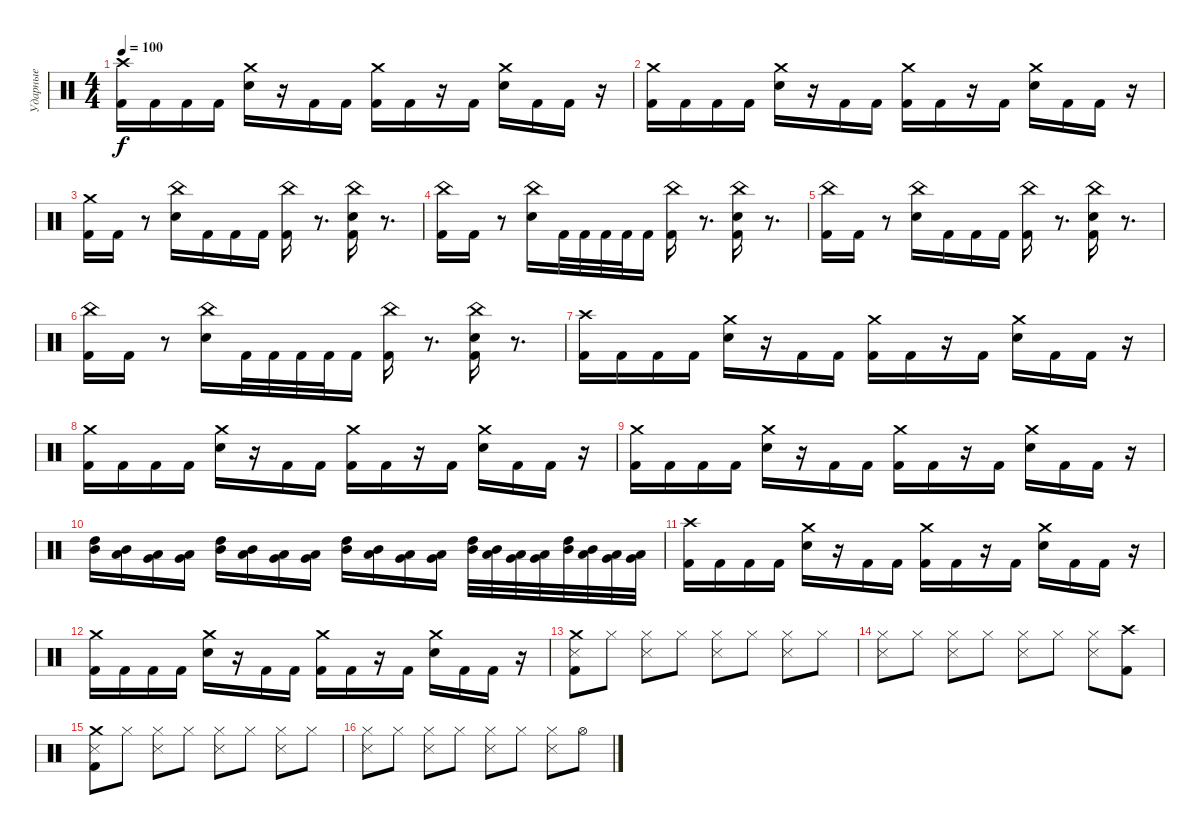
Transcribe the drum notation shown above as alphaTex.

\track ("Ударные" "Ударные") {instrument percussion}
\staff {score}
\articulation defaults
\ts (4 4)
\tempo 100
\clef neutral
\ks c
("Crash high (hit)" "Kick (hit) 2").16{dy f} "Kick (hit) 2".16 "Kick (hit) 2".16 "Kick (hit) 2".16 ("Crash medium (hit)" "Electric Snare (hit)").16 r.16 "Kick (hit) 2".16 "Kick (hit) 2".16 ("Crash medium (hit)" "Kick (hit) 2").16 "Kick (hit) 2".16 r.16 "Kick (hit) 2".16 ("Crash medium (hit)" "Electric Snare (hit)").16 "Kick (hit) 2".16 "Kick (hit) 2".16 r.16 |
("Crash medium (hit)" "Kick (hit) 2").16 "Kick (hit) 2".16 "Kick (hit) 2".16 "Kick (hit) 2".16 ("Crash medium (hit)" "Electric Snare (hit)").16 r.16 "Kick (hit) 2".16 "Kick (hit) 2".16 ("Crash medium (hit)" "Kick (hit) 2").16 "Kick (hit) 2".16 r.16 "Kick (hit) 2".16 ("Crash medium (hit)" "Electric Snare (hit)").16 "Kick (hit) 2".16 "Kick (hit) 2".16 r.16 |
("Crash medium (hit)" "Kick (hit) 2").16 "Kick (hit) 2".16 r.8 ("China (hit)" "Electric Snare (hit)").16 "Kick (hit) 2".16 "Kick (hit) 2".16 "Kick (hit) 2".16 ("China (hit)" "Kick (hit) 2").16 r.8{d} ("China (hit)" "Electric Snare (hit)" "Kick (hit) 2").16 r.8{d} |
("China (hit)" "Kick (hit) 2").16 "Kick (hit) 2".16 r.8 ("China (hit)" "Electric Snare (hit)").16 "Kick (hit) 2".32 "Kick (hit) 2".32 "Kick (hit) 2".32 "Kick (hit) 2".32 "Kick (hit) 2".16 ("China (hit)" "Kick (hit) 2").16 r.8{d} ("China (hit)" "Electric Snare (hit)" "Kick (hit) 2").16 r.8{d} |
("China (hit)" "Kick (hit) 2").16 "Kick (hit) 2".16 r.8 ("China (hit)" "Electric Snare (hit)").16 "Kick (hit) 2".16 "Kick (hit) 2".16 "Kick (hit) 2".16 ("China (hit)" "Kick (hit) 2").16 r.8{d} ("China (hit)" "Electric Snare (hit)" "Kick (hit) 2").16 r.8{d} |
("China (hit)" "Kick (hit) 2").16 "Kick (hit) 2".16 r.8 ("China (hit)" "Electric Snare (hit)").16 "Kick (hit) 2".32 "Kick (hit) 2".32 "Kick (hit) 2".32 "Kick (hit) 2".32 "Kick (hit) 2".16 ("China (hit)" "Kick (hit) 2").16 r.8{d} ("China (hit)" "Electric Snare (hit)" "Kick (hit) 2").16 r.8{d} |
("Crash high (hit)" "Kick (hit) 2").16 "Kick (hit) 2".16 "Kick (hit) 2".16 "Kick (hit) 2".16 ("Crash medium (hit)" "Electric Snare (hit)").16 r.16 "Kick (hit) 2".16 "Kick (hit) 2".16 ("Crash medium (hit)" "Kick (hit) 2").16 "Kick (hit) 2".16 r.16 "Kick (hit) 2".16 ("Crash medium (hit)" "Electric Snare (hit)").16 "Kick (hit) 2".16 "Kick (hit) 2".16 r.16 |
("Crash medium (hit)" "Kick (hit) 2").16 "Kick (hit) 2".16 "Kick (hit) 2".16 "Kick (hit) 2".16 ("Crash medium (hit)" "Electric Snare (hit)").16 r.16 "Kick (hit) 2".16 "Kick (hit) 2".16 ("Crash medium (hit)" "Kick (hit) 2").16 "Kick (hit) 2".16 r.16 "Kick (hit) 2".16 ("Crash medium (hit)" "Electric Snare (hit)").16 "Kick (hit) 2".16 "Kick (hit) 2".16 r.16 |
("Crash medium (hit)" "Kick (hit) 2").16 "Kick (hit) 2".16 "Kick (hit) 2".16 "Kick (hit) 2".16 ("Crash medium (hit)" "Electric Snare (hit)").16 r.16 "Kick (hit) 2".16 "Kick (hit) 2".16 ("Crash medium (hit)" "Kick (hit) 2").16 "Kick (hit) 2".16 r.16 "Kick (hit) 2".16 ("Crash medium (hit)" "Electric Snare (hit)").16 "Kick (hit) 2".16 "Kick (hit) 2".16 r.16 |
("High Tom (hit)" "Mid Tom (hit)").16 ("Mid Tom (hit)" "Low Tom (hit)").16 ("Low Tom (hit)" "Very Low Tom (hit)").16 ("Very Low Tom (hit)" "Low Floor Tom (hit)").16 ("High Tom (hit)" "Mid Tom (hit)").16 ("Mid Tom (hit)" "Low Tom (hit)").16 ("Low Tom (hit)" "Very Low Tom (hit)").16 ("Very Low Tom (hit)" "Low Floor Tom (hit)").16 ("High Tom (hit)" "Mid Tom (hit)").16 ("Mid Tom (hit)" "Low Tom (hit)").16 ("Low Tom (hit)" "Very Low Tom (hit)").16 ("Very Low Tom (hit)" "Low Floor Tom (hit)").16 ("High Tom (hit)" "Mid Tom (hit)").32 ("Mid Tom (hit)" "Low Tom (hit)").32 ("Low Tom (hit)" "Very Low Tom (hit)").32 ("Very Low Tom (hit)" "Low Floor Tom (hit)").32 ("High Tom (hit)" "Mid Tom (hit)").32 ("Mid Tom (hit)" "Low Tom (hit)").32 ("Low Tom (hit)" "Very Low Tom (hit)").32 ("Very Low Tom (hit)" "Low Floor Tom (hit)").32 |
("Crash high (hit)" "Kick (hit) 2").16 "Kick (hit) 2".16 "Kick (hit) 2".16 "Kick (hit) 2".16 ("Crash medium (hit)" "Electric Snare (hit)").16 r.16 "Kick (hit) 2".16 "Kick (hit) 2".16 ("Crash medium (hit)" "Kick (hit) 2").16 "Kick (hit) 2".16 r.16 "Kick (hit) 2".16 ("Crash medium (hit)" "Electric Snare (hit)").16 "Kick (hit) 2".16 "Kick (hit) 2".16 r.16 |
("Crash medium (hit)" "Kick (hit) 2").16 "Kick (hit) 2".16 "Kick (hit) 2".16 "Kick (hit) 2".16 ("Crash medium (hit)" "Electric Snare (hit)").16 r.16 "Kick (hit) 2".16 "Kick (hit) 2".16 ("Crash medium (hit)" "Kick (hit) 2").16 "Kick (hit) 2".16 r.16 "Kick (hit) 2".16 ("Crash medium (hit)" "Electric Snare (hit)").16 "Kick (hit) 2".16 "Kick (hit) 2".16 r.16 |
("Crash medium (hit)" "Metronome (hit)" "Kick (hit) 2").8 "Hi-Hat (closed)".8 ("Hi-Hat (closed)" "Metronome (hit)").8 "Hi-Hat (closed)".8 ("Hi-Hat (closed)" "Metronome (hit)").8 "Hi-Hat (closed)".8 ("Hi-Hat (closed)" "Metronome (hit)").8 "Hi-Hat (closed)".8 |
("Hi-Hat (closed)" "Metronome (hit)").8 "Hi-Hat (closed)".8 ("Hi-Hat (closed)" "Metronome (hit)").8 "Hi-Hat (closed)".8 ("Hi-Hat (closed)" "Metronome (hit)").8 "Hi-Hat (closed)".8 ("Hi-Hat (closed)" "Metronome (hit)").8 ("Crash high (hit)" "Kick (hit) 2").8 |
("Crash medium (hit)" "Metronome (hit)" "Kick (hit) 2").8 "Hi-Hat (closed)".8 ("Hi-Hat (closed)" "Metronome (hit)").8 "Hi-Hat (closed)".8 ("Hi-Hat (closed)" "Metronome (hit)").8 "Hi-Hat (closed)".8 ("Hi-Hat (closed)" "Metronome (hit)").8 "Hi-Hat (closed)".8 |
("Hi-Hat (closed)" "Metronome (hit)").8 "Hi-Hat (closed)".8 ("Hi-Hat (closed)" "Metronome (hit)").8 "Hi-Hat (closed)".8 ("Hi-Hat (closed)" "Metronome (hit)").8 "Hi-Hat (closed)".8 ("Hi-Hat (closed)" "Metronome (hit)").8 "Hi-Hat (open)".8
